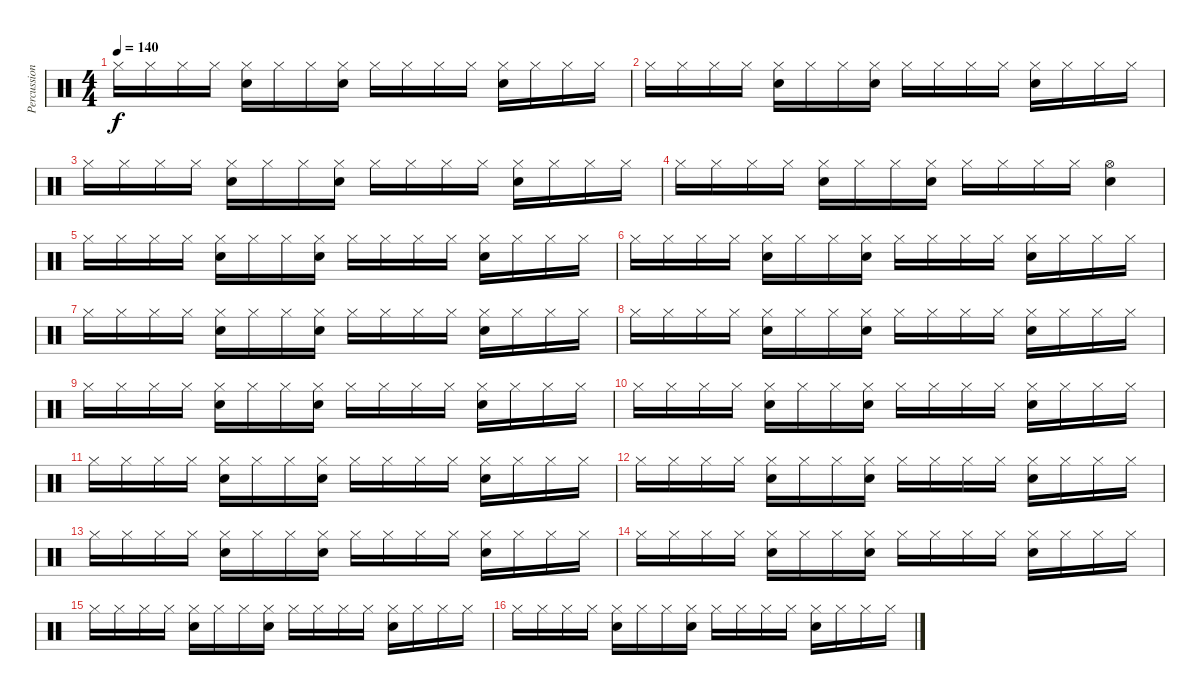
\track ("Percussion" "Percussion") {instrument percussion}
\staff {score}
\articulation defaults
\ts (4 4)
\tempo 140
\clef neutral
\ks c "Hi-Hat (closed)".16{dy f} "Hi-Hat (closed)".16 "Hi-Hat (closed)".16 "Hi-Hat (closed)".16
("Hi-Hat (closed)" "Electric Snare (hit)").16 "Hi-Hat (closed)".16 "Hi-Hat (closed)".16 ("Hi-Hat (closed)" "Electric Snare (hit)").16 "Hi-Hat (closed)".16 "Hi-Hat (closed)".16 "Hi-Hat (closed)".16 "Hi-Hat (closed)".16 ("Hi-Hat (closed)" "Electric Snare (hit)").16 "Hi-Hat (closed)".16 "Hi-Hat (closed)".16 "Hi-Hat (closed)".16 |
"Hi-Hat (closed)".16 "Hi-Hat (closed)".16 "Hi-Hat (closed)".16 "Hi-Hat (closed)".16 ("Hi-Hat (closed)" "Electric Snare (hit)").16 "Hi-Hat (closed)".16 "Hi-Hat (closed)".16 ("Hi-Hat (closed)" "Electric Snare (hit)").16 "Hi-Hat (closed)".16 "Hi-Hat (closed)".16 "Hi-Hat (closed)".16 "Hi-Hat (closed)".16 ("Hi-Hat (closed)" "Electric Snare (hit)").16 "Hi-Hat (closed)".16 "Hi-Hat (closed)".16 "Hi-Hat (closed)".16 |
"Hi-Hat (closed)".16 "Hi-Hat (closed)".16 "Hi-Hat (closed)".16 "Hi-Hat (closed)".16 ("Hi-Hat (closed)" "Electric Snare (hit)").16 "Hi-Hat (closed)".16 "Hi-Hat (closed)".16 ("Hi-Hat (closed)" "Electric Snare (hit)").16 "Hi-Hat (closed)".16 "Hi-Hat (closed)".16 "Hi-Hat (closed)".16 "Hi-Hat (closed)".16 ("Hi-Hat (closed)" "Electric Snare (hit)").16 "Hi-Hat (closed)".16 "Hi-Hat (closed)".16 "Hi-Hat (closed)".16 |
"Hi-Hat (closed)".16 "Hi-Hat (closed)".16 "Hi-Hat (closed)".16 "Hi-Hat (closed)".16 ("Hi-Hat (closed)" "Electric Snare (hit)").16 "Hi-Hat (closed)".16 "Hi-Hat (closed)".16 ("Hi-Hat (closed)" "Electric Snare (hit)").16 "Hi-Hat (closed)".16 "Hi-Hat (closed)".16 "Hi-Hat (closed)".16 "Hi-Hat (closed)".16 ("Hi-Hat (open)" "Electric Snare (hit)").4 |
"Hi-Hat (closed)".16 "Hi-Hat (closed)".16 "Hi-Hat (closed)".16 "Hi-Hat (closed)".16 ("Hi-Hat (closed)" "Electric Snare (hit)").16 "Hi-Hat (closed)".16 "Hi-Hat (closed)".16 ("Hi-Hat (closed)" "Electric Snare (hit)").16 "Hi-Hat (closed)".16 "Hi-Hat (closed)".16 "Hi-Hat (closed)".16 "Hi-Hat (closed)".16 ("Hi-Hat (closed)" "Electric Snare (hit)").16 "Hi-Hat (closed)".16 "Hi-Hat (closed)".16 "Hi-Hat (closed)".16 |
"Hi-Hat (closed)".16 "Hi-Hat (closed)".16 "Hi-Hat (closed)".16 "Hi-Hat (closed)".16 ("Hi-Hat (closed)" "Electric Snare (hit)").16 "Hi-Hat (closed)".16 "Hi-Hat (closed)".16 ("Hi-Hat (closed)" "Electric Snare (hit)").16 "Hi-Hat (closed)".16 "Hi-Hat (closed)".16 "Hi-Hat (closed)".16 "Hi-Hat (closed)".16 ("Hi-Hat (closed)" "Electric Snare (hit)").16 "Hi-Hat (closed)".16 "Hi-Hat (closed)".16 "Hi-Hat (closed)".16 |
"Hi-Hat (closed)".16 "Hi-Hat (closed)".16 "Hi-Hat (closed)".16 "Hi-Hat (closed)".16 ("Hi-Hat (closed)" "Electric Snare (hit)").16 "Hi-Hat (closed)".16 "Hi-Hat (closed)".16 ("Hi-Hat (closed)" "Electric Snare (hit)").16 "Hi-Hat (closed)".16 "Hi-Hat (closed)".16 "Hi-Hat (closed)".16 "Hi-Hat (closed)".16 ("Hi-Hat (closed)" "Electric Snare (hit)").16 "Hi-Hat (closed)".16 "Hi-Hat (closed)".16 "Hi-Hat (closed)".16 |
"Hi-Hat (closed)".16 "Hi-Hat (closed)".16 "Hi-Hat (closed)".16 "Hi-Hat (closed)".16 ("Hi-Hat (closed)" "Electric Snare (hit)").16 "Hi-Hat (closed)".16 "Hi-Hat (closed)".16 ("Hi-Hat (closed)" "Electric Snare (hit)").16 "Hi-Hat (closed)".16 "Hi-Hat (closed)".16 "Hi-Hat (closed)".16 "Hi-Hat (closed)".16 ("Hi-Hat (closed)" "Electric Snare (hit)").16 "Hi-Hat (closed)".16 "Hi-Hat (closed)".16 "Hi-Hat (closed)".16 |
"Hi-Hat (closed)".16 "Hi-Hat (closed)".16 "Hi-Hat (closed)".16 "Hi-Hat (closed)".16 ("Hi-Hat (closed)" "Electric Snare (hit)").16 "Hi-Hat (closed)".16 "Hi-Hat (closed)".16 ("Hi-Hat (closed)" "Electric Snare (hit)").16 "Hi-Hat (closed)".16 "Hi-Hat (closed)".16 "Hi-Hat (closed)".16 "Hi-Hat (closed)".16 ("Hi-Hat (closed)" "Electric Snare (hit)").16 "Hi-Hat (closed)".16 "Hi-Hat (closed)".16 "Hi-Hat (closed)".16 |
"Hi-Hat (closed)".16 "Hi-Hat (closed)".16 "Hi-Hat (closed)".16 "Hi-Hat (closed)".16 ("Hi-Hat (closed)" "Electric Snare (hit)").16 "Hi-Hat (closed)".16 "Hi-Hat (closed)".16 ("Hi-Hat (closed)" "Electric Snare (hit)").16 "Hi-Hat (closed)".16 "Hi-Hat (closed)".16 "Hi-Hat (closed)".16 "Hi-Hat (closed)".16 ("Hi-Hat (closed)" "Electric Snare (hit)").16 "Hi-Hat (closed)".16 "Hi-Hat (closed)".16 "Hi-Hat (closed)".16 |
"Hi-Hat (closed)".16 "Hi-Hat (closed)".16 "Hi-Hat (closed)".16 "Hi-Hat (closed)".16 ("Hi-Hat (closed)" "Electric Snare (hit)").16 "Hi-Hat (closed)".16 "Hi-Hat (closed)".16 ("Hi-Hat (closed)" "Electric Snare (hit)").16 "Hi-Hat (closed)".16 "Hi-Hat (closed)".16 "Hi-Hat (closed)".16 "Hi-Hat (closed)".16 ("Hi-Hat (closed)" "Electric Snare (hit)").16 "Hi-Hat (closed)".16 "Hi-Hat (closed)".16 "Hi-Hat (closed)".16 |
"Hi-Hat (closed)".16 "Hi-Hat (closed)".16 "Hi-Hat (closed)".16 "Hi-Hat (closed)".16 ("Hi-Hat (closed)" "Electric Snare (hit)").16 "Hi-Hat (closed)".16 "Hi-Hat (closed)".16 ("Hi-Hat (closed)" "Electric Snare (hit)").16 "Hi-Hat (closed)".16 "Hi-Hat (closed)".16 "Hi-Hat (closed)".16 "Hi-Hat (closed)".16 ("Hi-Hat (closed)" "Electric Snare (hit)").16 "Hi-Hat (closed)".16 "Hi-Hat (closed)".16 "Hi-Hat (closed)".16 |
"Hi-Hat (closed)".16 "Hi-Hat (closed)".16 "Hi-Hat (closed)".16 "Hi-Hat (closed)".16 ("Hi-Hat (closed)" "Electric Snare (hit)").16 "Hi-Hat (closed)".16 "Hi-Hat (closed)".16 ("Hi-Hat (closed)" "Electric Snare (hit)").16 "Hi-Hat (closed)".16 "Hi-Hat (closed)".16 "Hi-Hat (closed)".16 "Hi-Hat (closed)".16 ("Hi-Hat (closed)" "Electric Snare (hit)").16 "Hi-Hat (closed)".16 "Hi-Hat (closed)".16 "Hi-Hat (closed)".16 |
"Hi-Hat (closed)".16 "Hi-Hat (closed)".16 "Hi-Hat (closed)".16 "Hi-Hat (closed)".16 ("Hi-Hat (closed)" "Electric Snare (hit)").16 "Hi-Hat (closed)".16 "Hi-Hat (closed)".16 ("Hi-Hat (closed)" "Electric Snare (hit)").16 "Hi-Hat (closed)".16 "Hi-Hat (closed)".16 "Hi-Hat (closed)".16 "Hi-Hat (closed)".16 ("Hi-Hat (closed)" "Electric Snare (hit)").16 "Hi-Hat (closed)".16 "Hi-Hat (closed)".16 "Hi-Hat (closed)".16 |
"Hi-Hat (closed)".16 "Hi-Hat (closed)".16 "Hi-Hat (closed)".16 "Hi-Hat (closed)".16 ("Hi-Hat (closed)" "Electric Snare (hit)").16 "Hi-Hat (closed)".16 "Hi-Hat (closed)".16 ("Hi-Hat (closed)" "Electric Snare (hit)").16 "Hi-Hat (closed)".16 "Hi-Hat (closed)".16 "Hi-Hat (closed)".16 "Hi-Hat (closed)".16 ("Hi-Hat (closed)" "Electric Snare (hit)").16 "Hi-Hat (closed)".16 "Hi-Hat (closed)".16 "Hi-Hat (closed)".16 |
"Hi-Hat (closed)".16 "Hi-Hat (closed)".16 "Hi-Hat (closed)".16 "Hi-Hat (closed)".16 ("Hi-Hat (closed)" "Electric Snare (hit)").16 "Hi-Hat (closed)".16 "Hi-Hat (closed)".16 ("Hi-Hat (closed)" "Electric Snare (hit)").16 "Hi-Hat (closed)".16 "Hi-Hat (closed)".16 "Hi-Hat (closed)".16 "Hi-Hat (closed)".16 ("Hi-Hat (closed)" "Electric Snare (hit)").16 "Hi-Hat (closed)".16 "Hi-Hat (closed)".16 "Hi-Hat (closed)".16
